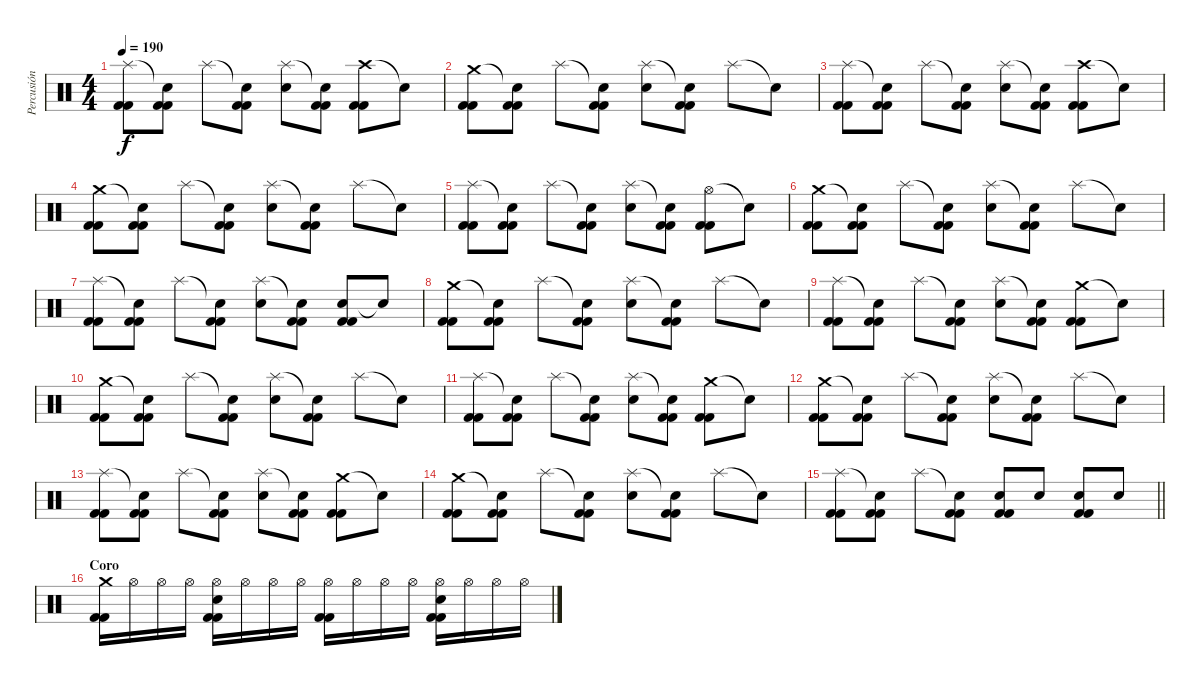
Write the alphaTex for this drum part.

\track ("Percusión" "Percusión") {instrument percussion}
\staff {score}
\articulation defaults
\ts (4 4)
\tempo 190
\clef neutral
\ks c
("Splash (hit)" "Kick (hit) 2" "Kick (hit) 2").8{dy f} ("Snare (hit)"{t} "Kick (hit) 2" "Kick (hit) 2").8 "Splash (hit)".8 ("Snare (hit)"{t} "Kick (hit) 2" "Kick (hit) 2").8 ("Splash (hit)" "Electric Snare (hit)").8 ("Snare (hit)"{t} "Kick (hit) 2" "Kick (hit) 2").8 ("Crash high (hit)" "Kick (hit) 2" "Kick (hit) 2").8 "Snare (hit)"{t}.8 |
("Crash medium (hit)" "Kick (hit) 2" "Kick (hit) 2").8 ("Snare (hit)"{t} "Kick (hit) 2" "Kick (hit) 2").8 "Splash (hit)".8 ("Snare (hit)"{t} "Kick (hit) 2" "Kick (hit) 2").8 ("Splash (hit)" "Electric Snare (hit)").8 ("Snare (hit)"{t} "Kick (hit) 2" "Kick (hit) 2").8 "Splash (hit)".8 "Snare (hit)"{t}.8 |
("Splash (hit)" "Kick (hit) 2" "Kick (hit) 2").8 ("Snare (hit)"{t} "Kick (hit) 2" "Kick (hit) 2").8 "Splash (hit)".8 ("Snare (hit)"{t} "Kick (hit) 2" "Kick (hit) 2").8 ("Splash (hit)" "Electric Snare (hit)").8 ("Snare (hit)"{t} "Kick (hit) 2" "Kick (hit) 2").8 ("Crash high (hit)" "Kick (hit) 2" "Kick (hit) 2").8 "Snare (hit)"{t}.8 |
("Crash medium (hit)" "Kick (hit) 2" "Kick (hit) 2").8 ("Snare (hit)"{t} "Kick (hit) 2" "Kick (hit) 2").8 "Splash (hit)".8 ("Snare (hit)"{t} "Kick (hit) 2" "Kick (hit) 2").8 ("Splash (hit)" "Electric Snare (hit)").8 ("Snare (hit)"{t} "Kick (hit) 2" "Kick (hit) 2").8 "Splash (hit)".8 "Snare (hit)"{t}.8 |
("Splash (hit)" "Kick (hit) 2" "Kick (hit) 2").8 ("Snare (hit)"{t} "Kick (hit) 2" "Kick (hit) 2").8 "Splash (hit)".8 ("Snare (hit)"{t} "Kick (hit) 2" "Kick (hit) 2").8 ("Splash (hit)" "Electric Snare (hit)").8 ("Snare (hit)"{t} "Kick (hit) 2" "Kick (hit) 2").8 ("Hi-Hat (open)" "Kick (hit) 2" "Kick (hit) 2").8 "Snare (hit)"{t}.8 |
("Crash medium (hit)" "Kick (hit) 2" "Kick (hit) 2").8 ("Snare (hit)"{t} "Kick (hit) 2" "Kick (hit) 2").8 "Splash (hit)".8 ("Snare (hit)"{t} "Kick (hit) 2" "Kick (hit) 2").8 ("Splash (hit)" "Electric Snare (hit)").8 ("Snare (hit)"{t} "Kick (hit) 2" "Kick (hit) 2").8 "Splash (hit)".8 "Snare (hit)"{t}.8 |
("Splash (hit)" "Kick (hit) 2" "Kick (hit) 2").8 ("Snare (hit)"{t} "Kick (hit) 2" "Kick (hit) 2").8 "Splash (hit)".8 ("Snare (hit)"{t} "Kick (hit) 2" "Kick (hit) 2").8 ("Splash (hit)" "Electric Snare (hit)").8 ("Snare (hit)"{t} "Kick (hit) 2" "Kick (hit) 2").8 ("Electric Snare (hit)" "Kick (hit) 2" "Kick (hit) 2").8 "Snare (hit)"{t}.8 |
("Crash medium (hit)" "Kick (hit) 2" "Kick (hit) 2").8 ("Snare (hit)"{t} "Kick (hit) 2" "Kick (hit) 2").8 "Splash (hit)".8 ("Snare (hit)"{t} "Kick (hit) 2" "Kick (hit) 2").8 ("Splash (hit)" "Electric Snare (hit)").8 ("Snare (hit)"{t} "Kick (hit) 2" "Kick (hit) 2").8 "Splash (hit)".8 "Snare (hit)"{t}.8 |
("Splash (hit)" "Kick (hit) 2" "Kick (hit) 2").8 ("Snare (hit)"{t} "Kick (hit) 2" "Kick (hit) 2").8 "Splash (hit)".8 ("Snare (hit)"{t} "Kick (hit) 2" "Kick (hit) 2").8 ("Splash (hit)" "Electric Snare (hit)").8 ("Snare (hit)"{t} "Kick (hit) 2" "Kick (hit) 2").8 ("Crash medium (hit)" "Kick (hit) 2" "Kick (hit) 2").8 "Snare (hit)"{t}.8 |
("Crash medium (hit)" "Kick (hit) 2" "Kick (hit) 2").8 ("Snare (hit)"{t} "Kick (hit) 2" "Kick (hit) 2").8 "Splash (hit)".8 ("Snare (hit)"{t} "Kick (hit) 2" "Kick (hit) 2").8 ("Splash (hit)" "Electric Snare (hit)").8 ("Snare (hit)"{t} "Kick (hit) 2" "Kick (hit) 2").8 "Splash (hit)".8 "Snare (hit)"{t}.8 |
("Splash (hit)" "Kick (hit) 2" "Kick (hit) 2").8 ("Snare (hit)"{t} "Kick (hit) 2" "Kick (hit) 2").8 "Splash (hit)".8 ("Snare (hit)"{t} "Kick (hit) 2" "Kick (hit) 2").8 ("Splash (hit)" "Electric Snare (hit)").8 ("Snare (hit)"{t} "Kick (hit) 2" "Kick (hit) 2").8 ("Crash medium (hit)" "Kick (hit) 2" "Kick (hit) 2").8 "Snare (hit)"{t}.8 |
("Crash medium (hit)" "Kick (hit) 2" "Kick (hit) 2").8 ("Snare (hit)"{t} "Kick (hit) 2" "Kick (hit) 2").8 "Splash (hit)".8 ("Snare (hit)"{t} "Kick (hit) 2" "Kick (hit) 2").8 ("Splash (hit)" "Electric Snare (hit)").8 ("Snare (hit)"{t} "Kick (hit) 2" "Kick (hit) 2").8 "Splash (hit)".8 "Snare (hit)"{t}.8 |
("Splash (hit)" "Kick (hit) 2" "Kick (hit) 2").8 ("Snare (hit)"{t} "Kick (hit) 2" "Kick (hit) 2").8 "Splash (hit)".8 ("Snare (hit)"{t} "Kick (hit) 2" "Kick (hit) 2").8 ("Splash (hit)" "Electric Snare (hit)").8 ("Snare (hit)"{t} "Kick (hit) 2" "Kick (hit) 2").8 ("Crash medium (hit)" "Kick (hit) 2" "Kick (hit) 2").8 "Snare (hit)"{t}.8 |
("Crash medium (hit)" "Kick (hit) 2" "Kick (hit) 2").8 ("Snare (hit)"{t} "Kick (hit) 2" "Kick (hit) 2").8 "Splash (hit)".8 ("Snare (hit)"{t} "Kick (hit) 2" "Kick (hit) 2").8 ("Splash (hit)" "Electric Snare (hit)").8 ("Snare (hit)"{t} "Kick (hit) 2" "Kick (hit) 2").8 "Splash (hit)".8 "Snare (hit)"{t}.8 |
\barLineRight lightlight
("Splash (hit)" "Kick (hit) 2" "Kick (hit) 2").8 ("Snare (hit)"{t} "Kick (hit) 2" "Kick (hit) 2").8 "Splash (hit)".8 ("Snare (hit)"{t} "Kick (hit) 2" "Kick (hit) 2").8 ("Electric Snare (hit)" "Kick (hit) 2" "Kick (hit) 2").8 "Electric Snare (hit)".8 ("Electric Snare (hit)" "Kick (hit) 2" "Kick (hit) 2").8 "Electric Snare (hit)".8 |
\section ("" "Coro")
("Crash medium (hit)" "Kick (hit) 2" "Kick (hit) 2").16 "Hi-Hat (open)".16 "Hi-Hat (open)".16 "Hi-Hat (open)".16 ("Hi-Hat (open)" "Electric Snare (hit)" "Kick (hit) 2" "Kick (hit) 2").16 "Hi-Hat (open)".16 "Hi-Hat (open)".16 "Hi-Hat (open)".16 ("Hi-Hat (open)" "Kick (hit) 2" "Kick (hit) 2").16 "Hi-Hat (open)".16 "Hi-Hat (open)".16 "Hi-Hat (open)".16 ("Hi-Hat (open)" "Electric Snare (hit)" "Kick (hit) 2" "Kick (hit) 2").16 "Hi-Hat (open)".16 "Hi-Hat (open)".16 "Hi-Hat (open)".16
